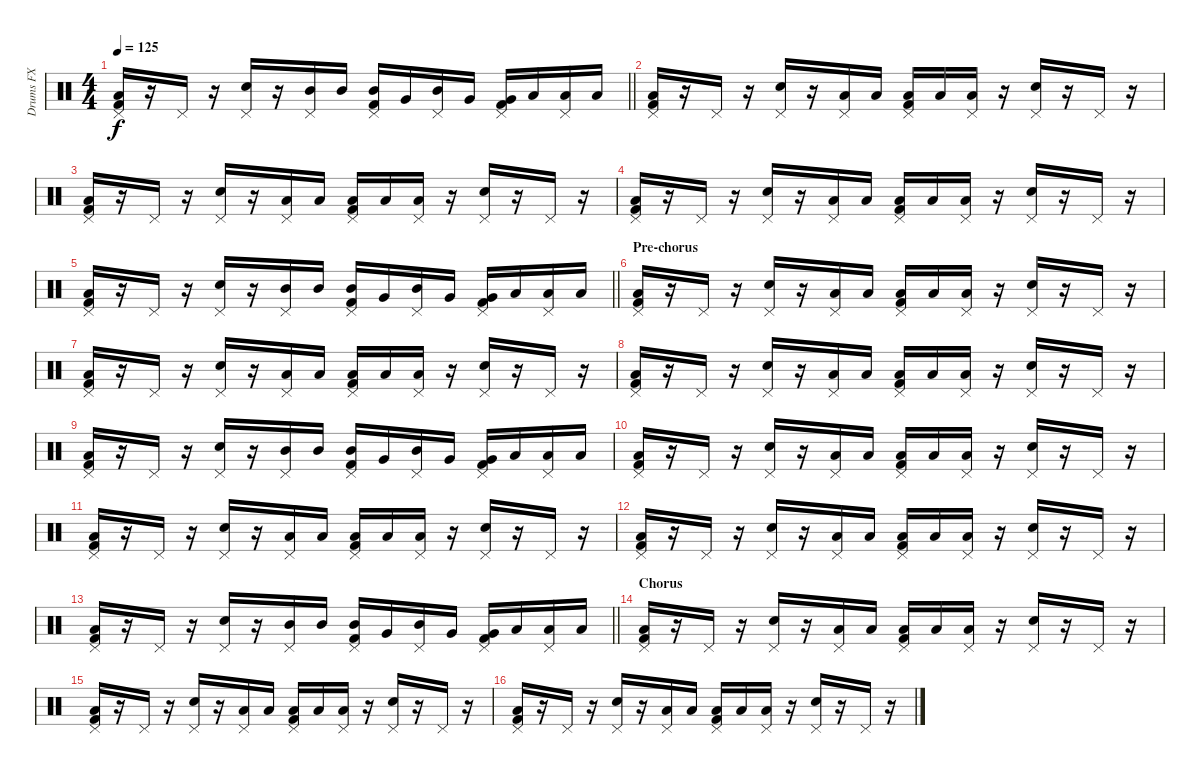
\track ("Drums FX" "Drums FX") {instrument percussion}
\staff {score}
\articulation defaults
\ts (4 4)
\tempo 125
\clef neutral
\barLineRight lightlight
\ks c
("Low Floor Tom (hit)" "Pedal Hi-Hat (hit)" "Kick (hit) 2").16{dy f} r.16 "Pedal Hi-Hat (hit)".16 r.16 ("Snare (hit) 2" "Pedal Hi-Hat (hit)").16 r.16 ("Mid Tom (hit)" "Pedal Hi-Hat (hit)").16 "Mid Tom (hit)".16 ("Mid Tom (hit)" "Pedal Hi-Hat (hit)" "Kick (hit) 2").16 "Very Low Tom (hit)".16 ("Mid Tom (hit)" "Pedal Hi-Hat (hit)").16 "Very Low Tom (hit)".16 ("Very Low Tom (hit)" "Pedal Hi-Hat (hit)" "Kick (hit) 2").16 "Low Floor Tom (hit)".16 ("Low Floor Tom (hit)" "Pedal Hi-Hat (hit)").16 "Low Floor Tom (hit)".16 |
("Low Floor Tom (hit)" "Pedal Hi-Hat (hit)" "Kick (hit) 2").16 r.16 "Pedal Hi-Hat (hit)".16 r.16 ("Snare (hit) 2" "Pedal Hi-Hat (hit)").16 r.16 ("Low Floor Tom (hit)" "Pedal Hi-Hat (hit)").16 "Low Floor Tom (hit)".16 ("Low Floor Tom (hit)" "Pedal Hi-Hat (hit)" "Kick (hit) 2").16 "Low Floor Tom (hit)".16 ("Low Floor Tom (hit)" "Pedal Hi-Hat (hit)").16 r.16 ("Snare (hit) 2" "Pedal Hi-Hat (hit)").16 r.16 "Pedal Hi-Hat (hit)".16 r.16 |
("Low Floor Tom (hit)" "Pedal Hi-Hat (hit)" "Kick (hit) 2").16 r.16 "Pedal Hi-Hat (hit)".16 r.16 ("Snare (hit) 2" "Pedal Hi-Hat (hit)").16 r.16 ("Low Floor Tom (hit)" "Pedal Hi-Hat (hit)").16 "Low Floor Tom (hit)".16 ("Low Floor Tom (hit)" "Pedal Hi-Hat (hit)" "Kick (hit) 2").16 "Low Floor Tom (hit)".16 ("Low Floor Tom (hit)" "Pedal Hi-Hat (hit)").16 r.16 ("Snare (hit) 2" "Pedal Hi-Hat (hit)").16 r.16 "Pedal Hi-Hat (hit)".16 r.16 |
("Low Floor Tom (hit)" "Pedal Hi-Hat (hit)" "Kick (hit) 2").16 r.16 "Pedal Hi-Hat (hit)".16 r.16 ("Snare (hit) 2" "Pedal Hi-Hat (hit)").16 r.16 ("Low Floor Tom (hit)" "Pedal Hi-Hat (hit)").16 "Low Floor Tom (hit)".16 ("Low Floor Tom (hit)" "Pedal Hi-Hat (hit)" "Kick (hit) 2").16 "Low Floor Tom (hit)".16 ("Low Floor Tom (hit)" "Pedal Hi-Hat (hit)").16 r.16 ("Snare (hit) 2" "Pedal Hi-Hat (hit)").16 r.16 "Pedal Hi-Hat (hit)".16 r.16 |
\barLineRight lightlight
("Low Floor Tom (hit)" "Pedal Hi-Hat (hit)" "Kick (hit) 2").16 r.16 "Pedal Hi-Hat (hit)".16 r.16 ("Snare (hit) 2" "Pedal Hi-Hat (hit)").16 r.16 ("Mid Tom (hit)" "Pedal Hi-Hat (hit)").16 "Mid Tom (hit)".16 ("Mid Tom (hit)" "Pedal Hi-Hat (hit)" "Kick (hit) 2").16 "Very Low Tom (hit)".16 ("Mid Tom (hit)" "Pedal Hi-Hat (hit)").16 "Very Low Tom (hit)".16 ("Very Low Tom (hit)" "Pedal Hi-Hat (hit)" "Kick (hit) 2").16 "Low Floor Tom (hit)".16 ("Low Floor Tom (hit)" "Pedal Hi-Hat (hit)").16 "Low Floor Tom (hit)".16 |
\section ("" "Pre-chorus")
("Low Floor Tom (hit)" "Pedal Hi-Hat (hit)" "Kick (hit) 2").16 r.16 "Pedal Hi-Hat (hit)".16 r.16 ("Snare (hit) 2" "Pedal Hi-Hat (hit)").16 r.16 ("Low Floor Tom (hit)" "Pedal Hi-Hat (hit)").16 "Low Floor Tom (hit)".16 ("Low Floor Tom (hit)" "Pedal Hi-Hat (hit)" "Kick (hit) 2").16 "Low Floor Tom (hit)".16 ("Low Floor Tom (hit)" "Pedal Hi-Hat (hit)").16 r.16 ("Snare (hit) 2" "Pedal Hi-Hat (hit)").16 r.16 "Pedal Hi-Hat (hit)".16 r.16 |
("Low Floor Tom (hit)" "Pedal Hi-Hat (hit)" "Kick (hit) 2").16 r.16 "Pedal Hi-Hat (hit)".16 r.16 ("Snare (hit) 2" "Pedal Hi-Hat (hit)").16 r.16 ("Low Floor Tom (hit)" "Pedal Hi-Hat (hit)").16 "Low Floor Tom (hit)".16 ("Low Floor Tom (hit)" "Pedal Hi-Hat (hit)" "Kick (hit) 2").16 "Low Floor Tom (hit)".16 ("Low Floor Tom (hit)" "Pedal Hi-Hat (hit)").16 r.16 ("Snare (hit) 2" "Pedal Hi-Hat (hit)").16 r.16 "Pedal Hi-Hat (hit)".16 r.16 |
("Low Floor Tom (hit)" "Pedal Hi-Hat (hit)" "Kick (hit) 2").16 r.16 "Pedal Hi-Hat (hit)".16 r.16 ("Snare (hit) 2" "Pedal Hi-Hat (hit)").16 r.16 ("Low Floor Tom (hit)" "Pedal Hi-Hat (hit)").16 "Low Floor Tom (hit)".16 ("Low Floor Tom (hit)" "Pedal Hi-Hat (hit)" "Kick (hit) 2").16 "Low Floor Tom (hit)".16 ("Low Floor Tom (hit)" "Pedal Hi-Hat (hit)").16 r.16 ("Snare (hit) 2" "Pedal Hi-Hat (hit)").16 r.16 "Pedal Hi-Hat (hit)".16 r.16 |
("Low Floor Tom (hit)" "Pedal Hi-Hat (hit)" "Kick (hit) 2").16 r.16 "Pedal Hi-Hat (hit)".16 r.16 ("Snare (hit) 2" "Pedal Hi-Hat (hit)").16 r.16 ("Mid Tom (hit)" "Pedal Hi-Hat (hit)").16 "Mid Tom (hit)".16 ("Mid Tom (hit)" "Pedal Hi-Hat (hit)" "Kick (hit) 2").16 "Very Low Tom (hit)".16 ("Mid Tom (hit)" "Pedal Hi-Hat (hit)").16 "Very Low Tom (hit)".16 ("Very Low Tom (hit)" "Pedal Hi-Hat (hit)" "Kick (hit) 2").16 "Low Floor Tom (hit)".16 ("Low Floor Tom (hit)" "Pedal Hi-Hat (hit)").16 "Low Floor Tom (hit)".16 |
("Low Floor Tom (hit)" "Pedal Hi-Hat (hit)" "Kick (hit) 2").16 r.16 "Pedal Hi-Hat (hit)".16 r.16 ("Snare (hit) 2" "Pedal Hi-Hat (hit)").16 r.16 ("Low Floor Tom (hit)" "Pedal Hi-Hat (hit)").16 "Low Floor Tom (hit)".16 ("Low Floor Tom (hit)" "Pedal Hi-Hat (hit)" "Kick (hit) 2").16 "Low Floor Tom (hit)".16 ("Low Floor Tom (hit)" "Pedal Hi-Hat (hit)").16 r.16 ("Snare (hit) 2" "Pedal Hi-Hat (hit)").16 r.16 "Pedal Hi-Hat (hit)".16 r.16 |
("Low Floor Tom (hit)" "Pedal Hi-Hat (hit)" "Kick (hit) 2").16 r.16 "Pedal Hi-Hat (hit)".16 r.16 ("Snare (hit) 2" "Pedal Hi-Hat (hit)").16 r.16 ("Low Floor Tom (hit)" "Pedal Hi-Hat (hit)").16 "Low Floor Tom (hit)".16 ("Low Floor Tom (hit)" "Pedal Hi-Hat (hit)" "Kick (hit) 2").16 "Low Floor Tom (hit)".16 ("Low Floor Tom (hit)" "Pedal Hi-Hat (hit)").16 r.16 ("Snare (hit) 2" "Pedal Hi-Hat (hit)").16 r.16 "Pedal Hi-Hat (hit)".16 r.16 |
("Low Floor Tom (hit)" "Pedal Hi-Hat (hit)" "Kick (hit) 2").16 r.16 "Pedal Hi-Hat (hit)".16 r.16 ("Snare (hit) 2" "Pedal Hi-Hat (hit)").16 r.16 ("Low Floor Tom (hit)" "Pedal Hi-Hat (hit)").16 "Low Floor Tom (hit)".16 ("Low Floor Tom (hit)" "Pedal Hi-Hat (hit)" "Kick (hit) 2").16 "Low Floor Tom (hit)".16 ("Low Floor Tom (hit)" "Pedal Hi-Hat (hit)").16 r.16 ("Snare (hit) 2" "Pedal Hi-Hat (hit)").16 r.16 "Pedal Hi-Hat (hit)".16 r.16 |
\barLineRight lightlight
("Low Floor Tom (hit)" "Pedal Hi-Hat (hit)" "Kick (hit) 2").16 r.16 "Pedal Hi-Hat (hit)".16 r.16 ("Snare (hit) 2" "Pedal Hi-Hat (hit)").16 r.16 ("Mid Tom (hit)" "Pedal Hi-Hat (hit)").16 "Mid Tom (hit)".16 ("Mid Tom (hit)" "Pedal Hi-Hat (hit)" "Kick (hit) 2").16 "Very Low Tom (hit)".16 ("Mid Tom (hit)" "Pedal Hi-Hat (hit)").16 "Very Low Tom (hit)".16 ("Very Low Tom (hit)" "Pedal Hi-Hat (hit)" "Kick (hit) 2").16 "Low Floor Tom (hit)".16 ("Low Floor Tom (hit)" "Pedal Hi-Hat (hit)").16 "Low Floor Tom (hit)".16 |
\section ("" "Chorus")
("Low Floor Tom (hit)" "Pedal Hi-Hat (hit)" "Kick (hit) 2").16 r.16 "Pedal Hi-Hat (hit)".16 r.16 ("Snare (hit) 2" "Pedal Hi-Hat (hit)").16 r.16 ("Low Floor Tom (hit)" "Pedal Hi-Hat (hit)").16 "Low Floor Tom (hit)".16 ("Low Floor Tom (hit)" "Pedal Hi-Hat (hit)" "Kick (hit) 2").16 "Low Floor Tom (hit)".16 ("Low Floor Tom (hit)" "Pedal Hi-Hat (hit)").16 r.16 ("Snare (hit) 2" "Pedal Hi-Hat (hit)").16 r.16 "Pedal Hi-Hat (hit)".16 r.16 |
("Low Floor Tom (hit)" "Pedal Hi-Hat (hit)" "Kick (hit) 2").16 r.16 "Pedal Hi-Hat (hit)".16 r.16 ("Snare (hit) 2" "Pedal Hi-Hat (hit)").16 r.16 ("Low Floor Tom (hit)" "Pedal Hi-Hat (hit)").16 "Low Floor Tom (hit)".16 ("Low Floor Tom (hit)" "Pedal Hi-Hat (hit)" "Kick (hit) 2").16 "Low Floor Tom (hit)".16 ("Low Floor Tom (hit)" "Pedal Hi-Hat (hit)").16 r.16 ("Snare (hit) 2" "Pedal Hi-Hat (hit)").16 r.16 "Pedal Hi-Hat (hit)".16 r.16 |
("Low Floor Tom (hit)" "Pedal Hi-Hat (hit)" "Kick (hit) 2").16 r.16 "Pedal Hi-Hat (hit)".16 r.16 ("Snare (hit) 2" "Pedal Hi-Hat (hit)").16 r.16 ("Low Floor Tom (hit)" "Pedal Hi-Hat (hit)").16 "Low Floor Tom (hit)".16 ("Low Floor Tom (hit)" "Pedal Hi-Hat (hit)" "Kick (hit) 2").16 "Low Floor Tom (hit)".16 ("Low Floor Tom (hit)" "Pedal Hi-Hat (hit)").16 r.16 ("Snare (hit) 2" "Pedal Hi-Hat (hit)").16 r.16 "Pedal Hi-Hat (hit)".16 r.16
